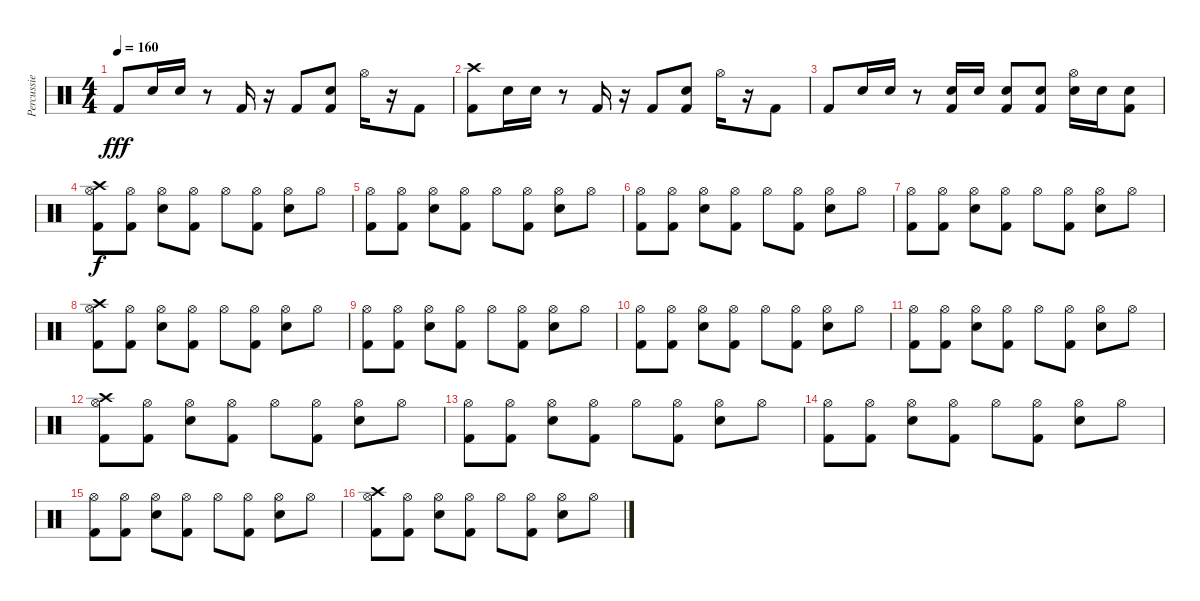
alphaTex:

\track ("Percussie" "Percussie") {instrument percussion}
\staff {score}
\articulation defaults
\ts (4 4)
\tempo 160
\clef neutral
\ks c "Kick (hit) 2".8{dy fff} "Electric Snare (hit)".16 "Electric Snare (hit)".16
r.8 "Kick (hit) 2".16 r.16 "Kick (hit) 2".8 ("Kick (hit) 2" "Electric Snare (hit)").8 "Hi-Hat (open)".16 r.16 "Kick (hit) 2".8 |
("Kick (hit) 2" "Crash high (hit)").8 "Electric Snare (hit)".16 "Electric Snare (hit)".16 r.8 "Kick (hit) 2".16 r.16 "Kick (hit) 2".8 ("Kick (hit) 2" "Electric Snare (hit)").8 "Hi-Hat (open)".16 r.16 "Kick (hit) 2".8 |
"Kick (hit) 2".8 "Electric Snare (hit)".16 "Electric Snare (hit)".16 r.8 ("Kick (hit) 2" "Electric Snare (hit)").16 "Electric Snare (hit)".16 ("Kick (hit) 2" "Electric Snare (hit)").8 ("Kick (hit) 2" "Electric Snare (hit)").8 ("Hi-Hat (open)" "Electric Snare (hit)").16 "Electric Snare (hit)".16 ("Kick (hit) 2" "Electric Snare (hit)").8 |
("Kick (hit) 2" "Crash high (hit)" "Hi-Hat (open)").8{dy f} ("Kick (hit) 2" "Hi-Hat (open)").8 ("Electric Snare (hit)" "Hi-Hat (open)").8 ("Kick (hit) 2" "Hi-Hat (open)").8 "Hi-Hat (open)".8 ("Kick (hit) 2" "Hi-Hat (open)").8 ("Electric Snare (hit)" "Hi-Hat (open)").8 "Hi-Hat (open)".8 |
("Kick (hit) 2" "Hi-Hat (open)").8 ("Kick (hit) 2" "Hi-Hat (open)").8 ("Electric Snare (hit)" "Hi-Hat (open)").8 ("Kick (hit) 2" "Hi-Hat (open)").8 "Hi-Hat (open)".8 ("Kick (hit) 2" "Hi-Hat (open)").8 ("Electric Snare (hit)" "Hi-Hat (open)").8 "Hi-Hat (open)".8 |
("Kick (hit) 2" "Hi-Hat (open)").8 ("Kick (hit) 2" "Hi-Hat (open)").8 ("Electric Snare (hit)" "Hi-Hat (open)").8 ("Kick (hit) 2" "Hi-Hat (open)").8 "Hi-Hat (open)".8 ("Kick (hit) 2" "Hi-Hat (open)").8 ("Electric Snare (hit)" "Hi-Hat (open)").8 "Hi-Hat (open)".8 |
("Kick (hit) 2" "Hi-Hat (open)").8 ("Kick (hit) 2" "Hi-Hat (open)").8 ("Electric Snare (hit)" "Hi-Hat (open)").8 ("Kick (hit) 2" "Hi-Hat (open)").8 "Hi-Hat (open)".8 ("Kick (hit) 2" "Hi-Hat (open)").8 ("Electric Snare (hit)" "Hi-Hat (open)").8 "Hi-Hat (open)".8 |
("Kick (hit) 2" "Crash high (hit)" "Hi-Hat (open)").8 ("Kick (hit) 2" "Hi-Hat (open)").8 ("Electric Snare (hit)" "Hi-Hat (open)").8 ("Kick (hit) 2" "Hi-Hat (open)").8 "Hi-Hat (open)".8 ("Kick (hit) 2" "Hi-Hat (open)").8 ("Electric Snare (hit)" "Hi-Hat (open)").8 "Hi-Hat (open)".8 |
("Kick (hit) 2" "Hi-Hat (open)").8 ("Kick (hit) 2" "Hi-Hat (open)").8 ("Electric Snare (hit)" "Hi-Hat (open)").8 ("Kick (hit) 2" "Hi-Hat (open)").8 "Hi-Hat (open)".8 ("Kick (hit) 2" "Hi-Hat (open)").8 ("Electric Snare (hit)" "Hi-Hat (open)").8 "Hi-Hat (open)".8 |
("Kick (hit) 2" "Hi-Hat (open)").8 ("Kick (hit) 2" "Hi-Hat (open)").8 ("Electric Snare (hit)" "Hi-Hat (open)").8 ("Kick (hit) 2" "Hi-Hat (open)").8 "Hi-Hat (open)".8 ("Kick (hit) 2" "Hi-Hat (open)").8 ("Electric Snare (hit)" "Hi-Hat (open)").8 "Hi-Hat (open)".8 |
("Kick (hit) 2" "Hi-Hat (open)").8 ("Kick (hit) 2" "Hi-Hat (open)").8 ("Electric Snare (hit)" "Hi-Hat (open)").8 ("Kick (hit) 2" "Hi-Hat (open)").8 "Hi-Hat (open)".8 ("Kick (hit) 2" "Hi-Hat (open)").8 ("Electric Snare (hit)" "Hi-Hat (open)").8 "Hi-Hat (open)".8 |
("Kick (hit) 2" "Crash high (hit)" "Hi-Hat (open)").8 ("Kick (hit) 2" "Hi-Hat (open)").8 ("Electric Snare (hit)" "Hi-Hat (open)").8 ("Kick (hit) 2" "Hi-Hat (open)").8 "Hi-Hat (open)".8 ("Kick (hit) 2" "Hi-Hat (open)").8 ("Electric Snare (hit)" "Hi-Hat (open)").8 "Hi-Hat (open)".8 |
("Kick (hit) 2" "Hi-Hat (open)").8 ("Kick (hit) 2" "Hi-Hat (open)").8 ("Electric Snare (hit)" "Hi-Hat (open)").8 ("Kick (hit) 2" "Hi-Hat (open)").8 "Hi-Hat (open)".8 ("Kick (hit) 2" "Hi-Hat (open)").8 ("Electric Snare (hit)" "Hi-Hat (open)").8 "Hi-Hat (open)".8 |
("Kick (hit) 2" "Hi-Hat (open)").8 ("Kick (hit) 2" "Hi-Hat (open)").8 ("Electric Snare (hit)" "Hi-Hat (open)").8 ("Kick (hit) 2" "Hi-Hat (open)").8 "Hi-Hat (open)".8 ("Kick (hit) 2" "Hi-Hat (open)").8 ("Electric Snare (hit)" "Hi-Hat (open)").8 "Hi-Hat (open)".8 |
("Kick (hit) 2" "Hi-Hat (open)").8 ("Kick (hit) 2" "Hi-Hat (open)").8 ("Electric Snare (hit)" "Hi-Hat (open)").8 ("Kick (hit) 2" "Hi-Hat (open)").8 "Hi-Hat (open)".8 ("Kick (hit) 2" "Hi-Hat (open)").8 ("Electric Snare (hit)" "Hi-Hat (open)").8 "Hi-Hat (open)".8 |
("Kick (hit) 2" "Crash high (hit)" "Hi-Hat (open)").8 ("Kick (hit) 2" "Hi-Hat (open)").8 ("Electric Snare (hit)" "Hi-Hat (open)").8 ("Kick (hit) 2" "Hi-Hat (open)").8 "Hi-Hat (open)".8 ("Kick (hit) 2" "Hi-Hat (open)").8 ("Electric Snare (hit)" "Hi-Hat (open)").8 "Hi-Hat (open)".8
